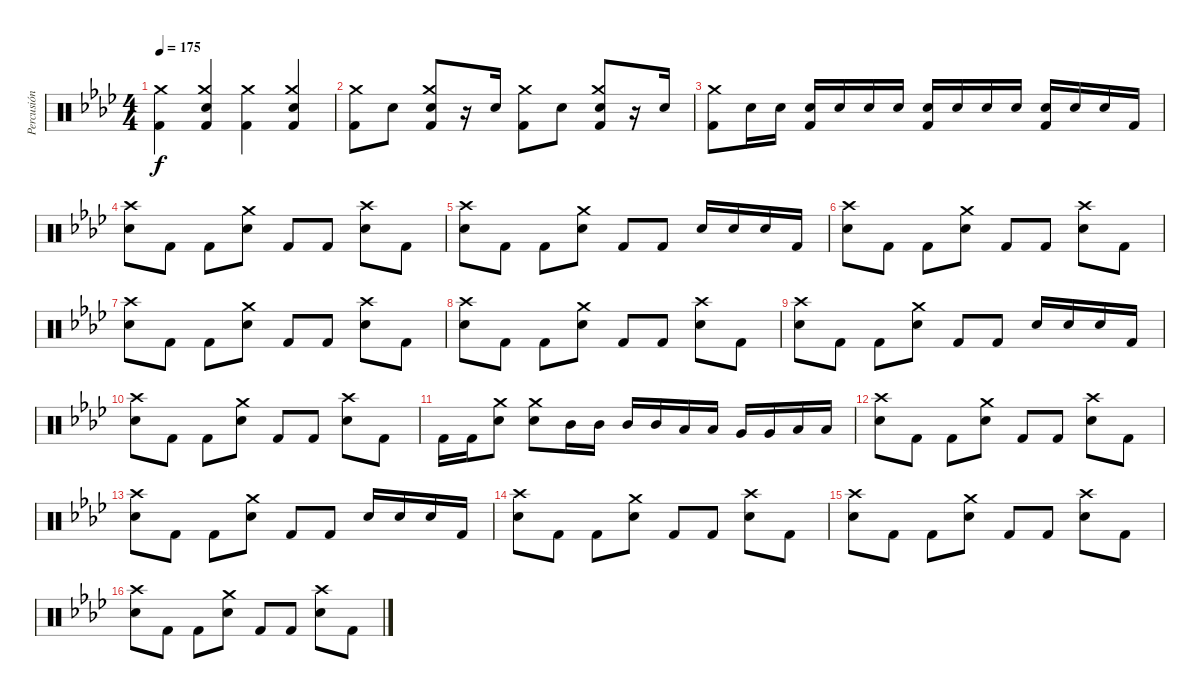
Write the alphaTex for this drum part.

\track ("Percusión" "Percusión") {instrument percussion}
\staff {score}
\articulation defaults
\ts (4 4)
\tempo 175
\clef neutral
\ks fminor
("Kick (hit) 2" "Crash medium (hit)").4{dy f} ("Kick (hit) 2" "Snare (hit) 2" "Crash medium (hit)").4 ("Kick (hit) 2" "Crash medium (hit)").4 ("Kick (hit) 2" "Snare (hit) 2" "Crash medium (hit)").4 |
("Kick (hit) 2" "Crash medium (hit)").8 "Snare (hit) 2".8 ("Kick (hit) 2" "Snare (hit) 2" "Crash medium (hit)").8 r.16 "Snare (hit) 2".16 ("Kick (hit) 2" "Crash medium (hit)").8 "Snare (hit) 2".8 ("Kick (hit) 2" "Snare (hit) 2" "Crash medium (hit)").8 r.16 "Snare (hit) 2".16 |
("Kick (hit) 2" "Crash medium (hit)").8 "Snare (hit) 2".16 "Snare (hit) 2".16 ("Kick (hit) 2" "Snare (hit) 2").16 "Snare (hit) 2".16 "Snare (hit) 2".16 "Snare (hit) 2".16 ("Kick (hit) 2" "Snare (hit) 2").16 "Snare (hit) 2".16 "Snare (hit) 2".16 "Snare (hit) 2".16 ("Kick (hit) 2" "Snare (hit) 2").16 "Snare (hit) 2".16 "Snare (hit) 2".16 "Kick (hit) 2".16 |
("Snare (hit) 2" "Crash high (hit)").8{volume 15} "Kick (hit) 2".8 "Kick (hit) 2".8 ("Snare (hit) 2" "Crash medium (hit)").8 "Kick (hit) 2".8 "Kick (hit) 2".8 ("Snare (hit) 2" "Crash high (hit)").8 "Kick (hit) 2".8 |
("Snare (hit) 2" "Crash high (hit)").8 "Kick (hit) 2".8 "Kick (hit) 2".8 ("Snare (hit) 2" "Crash medium (hit)").8 "Kick (hit) 2".8 "Kick (hit) 2".8 "Snare (hit) 2".16 "Snare (hit) 2".16 "Snare (hit) 2".16 "Kick (hit) 2".16 |
("Snare (hit) 2" "Crash high (hit)").8 "Kick (hit) 2".8 "Kick (hit) 2".8 ("Snare (hit) 2" "Crash medium (hit)").8 "Kick (hit) 2".8 "Kick (hit) 2".8 ("Snare (hit) 2" "Crash high (hit)").8 "Kick (hit) 2".8 |
("Snare (hit) 2" "Crash high (hit)").8 "Kick (hit) 2".8 "Kick (hit) 2".8 ("Snare (hit) 2" "Crash medium (hit)").8 "Kick (hit) 2".8 "Kick (hit) 2".8 ("Snare (hit) 2" "Crash high (hit)").8 "Kick (hit) 2".8 |
("Snare (hit) 2" "Crash high (hit)").8 "Kick (hit) 2".8 "Kick (hit) 2".8 ("Snare (hit) 2" "Crash medium (hit)").8 "Kick (hit) 2".8 "Kick (hit) 2".8 ("Snare (hit) 2" "Crash high (hit)").8 "Kick (hit) 2".8 |
("Snare (hit) 2" "Crash high (hit)").8 "Kick (hit) 2".8 "Kick (hit) 2".8 ("Snare (hit) 2" "Crash medium (hit)").8 "Kick (hit) 2".8 "Kick (hit) 2".8 "Snare (hit) 2".16 "Snare (hit) 2".16 "Snare (hit) 2".16 "Kick (hit) 2".16 |
("Snare (hit) 2" "Crash high (hit)").8 "Kick (hit) 2".8 "Kick (hit) 2".8 ("Snare (hit) 2" "Crash medium (hit)").8 "Kick (hit) 2".8 "Kick (hit) 2".8 ("Snare (hit) 2" "Crash high (hit)").8 "Kick (hit) 2".8 |
"Kick (hit) 2".16 "Kick (hit) 2".16 ("Snare (hit) 2" "Crash medium (hit)").8 ("Snare (hit) 2" "Crash medium (hit)").8 "Mid Tom (hit)".16 "Mid Tom (hit)".16 "Mid Tom (hit)".16 "Mid Tom (hit)".16 "Low Tom (hit)".16 "Low Tom (hit)".16 "Very Low Tom (hit)".16 "Very Low Tom (hit)".16 "Low Floor Tom (hit)".16 "Low Floor Tom (hit)".16 |
("Snare (hit) 2" "Crash high (hit)").8{volume 15} "Kick (hit) 2".8 "Kick (hit) 2".8 ("Snare (hit) 2" "Crash medium (hit)").8 "Kick (hit) 2".8 "Kick (hit) 2".8 ("Snare (hit) 2" "Crash high (hit)").8 "Kick (hit) 2".8 |
("Snare (hit) 2" "Crash high (hit)").8 "Kick (hit) 2".8 "Kick (hit) 2".8 ("Snare (hit) 2" "Crash medium (hit)").8 "Kick (hit) 2".8 "Kick (hit) 2".8 "Snare (hit) 2".16 "Snare (hit) 2".16 "Snare (hit) 2".16 "Kick (hit) 2".16 |
("Snare (hit) 2" "Crash high (hit)").8 "Kick (hit) 2".8 "Kick (hit) 2".8 ("Snare (hit) 2" "Crash medium (hit)").8 "Kick (hit) 2".8 "Kick (hit) 2".8 ("Snare (hit) 2" "Crash high (hit)").8 "Kick (hit) 2".8 |
("Snare (hit) 2" "Crash high (hit)").8 "Kick (hit) 2".8 "Kick (hit) 2".8 ("Snare (hit) 2" "Crash medium (hit)").8 "Kick (hit) 2".8 "Kick (hit) 2".8 ("Snare (hit) 2" "Crash high (hit)").8 "Kick (hit) 2".8 |
("Snare (hit) 2" "Crash high (hit)").8{volume 15} "Kick (hit) 2".8 "Kick (hit) 2".8 ("Snare (hit) 2" "Crash medium (hit)").8 "Kick (hit) 2".8 "Kick (hit) 2".8 ("Snare (hit) 2" "Crash high (hit)").8 "Kick (hit) 2".8
